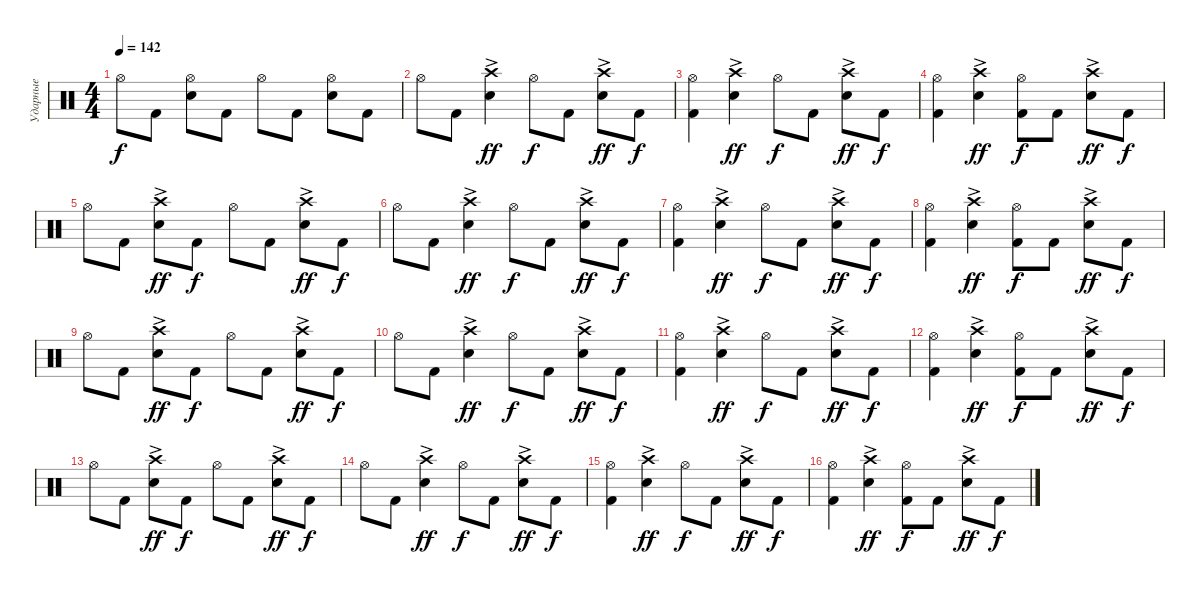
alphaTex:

\track ("Ударные" "Ударные") {instrument percussion}
\staff {score}
\articulation defaults
\ts (4 4)
\tempo 142
\clef neutral
\ks c "Hi-Hat (open)".8{dy f} "Kick (hit) 2".8
("Snare (hit) 2" "Hi-Hat (open)").8 "Kick (hit) 2".8 "Hi-Hat (open)".8 "Kick (hit) 2".8 ("Snare (hit) 2" "Hi-Hat (open)").8 "Kick (hit) 2".8 |
"Hi-Hat (open)".8 "Kick (hit) 2".8 ("Snare (hit) 2" "Crash high (hit)"{ac}).4{dy ff} "Hi-Hat (open)".8{dy f} "Kick (hit) 2".8 ("Snare (hit) 2" "Crash high (hit)"{ac}).8{dy ff} "Kick (hit) 2".8{dy f} |
("Kick (hit) 2" "Hi-Hat (open)").4 ("Snare (hit) 2" "Crash high (hit)"{ac}).4{dy ff} "Hi-Hat (open)".8{dy f} "Kick (hit) 2".8 ("Snare (hit) 2" "Crash high (hit)"{ac}).8{dy ff} "Kick (hit) 2".8{dy f} |
("Kick (hit) 2" "Hi-Hat (open)").4 ("Snare (hit) 2" "Crash high (hit)"{ac}).4{dy ff} ("Kick (hit) 2" "Hi-Hat (open)").8{dy f} "Kick (hit) 2".8 ("Snare (hit) 2" "Crash high (hit)"{ac}).8{dy ff} "Kick (hit) 2".8{dy f} |
"Hi-Hat (open)".8 "Kick (hit) 2".8 ("Snare (hit) 2" "Crash high (hit)"{ac}).8{dy ff} "Kick (hit) 2".8{dy f} "Hi-Hat (open)".8 "Kick (hit) 2".8 ("Snare (hit) 2" "Crash high (hit)"{ac}).8{dy ff} "Kick (hit) 2".8{dy f} |
"Hi-Hat (open)".8 "Kick (hit) 2".8 ("Snare (hit) 2" "Crash high (hit)"{ac}).4{dy ff} "Hi-Hat (open)".8{dy f} "Kick (hit) 2".8 ("Snare (hit) 2" "Crash high (hit)"{ac}).8{dy ff} "Kick (hit) 2".8{dy f} |
("Kick (hit) 2" "Hi-Hat (open)").4 ("Snare (hit) 2" "Crash high (hit)"{ac}).4{dy ff} "Hi-Hat (open)".8{dy f} "Kick (hit) 2".8 ("Snare (hit) 2" "Crash high (hit)"{ac}).8{dy ff} "Kick (hit) 2".8{dy f} |
("Kick (hit) 2" "Hi-Hat (open)").4 ("Snare (hit) 2" "Crash high (hit)"{ac}).4{dy ff} ("Kick (hit) 2" "Hi-Hat (open)").8{dy f} "Kick (hit) 2".8 ("Snare (hit) 2" "Crash high (hit)"{ac}).8{dy ff} "Kick (hit) 2".8{dy f} |
"Hi-Hat (open)".8 "Kick (hit) 2".8 ("Snare (hit) 2" "Crash high (hit)"{ac}).8{dy ff} "Kick (hit) 2".8{dy f} "Hi-Hat (open)".8 "Kick (hit) 2".8 ("Snare (hit) 2" "Crash high (hit)"{ac}).8{dy ff} "Kick (hit) 2".8{dy f} |
"Hi-Hat (open)".8 "Kick (hit) 2".8 ("Snare (hit) 2" "Crash high (hit)"{ac}).4{dy ff} "Hi-Hat (open)".8{dy f} "Kick (hit) 2".8 ("Snare (hit) 2" "Crash high (hit)"{ac}).8{dy ff} "Kick (hit) 2".8{dy f} |
("Kick (hit) 2" "Hi-Hat (open)").4 ("Snare (hit) 2" "Crash high (hit)"{ac}).4{dy ff} "Hi-Hat (open)".8{dy f} "Kick (hit) 2".8 ("Snare (hit) 2" "Crash high (hit)"{ac}).8{dy ff} "Kick (hit) 2".8{dy f} |
("Kick (hit) 2" "Hi-Hat (open)").4 ("Snare (hit) 2" "Crash high (hit)"{ac}).4{dy ff} ("Kick (hit) 2" "Hi-Hat (open)").8{dy f} "Kick (hit) 2".8 ("Snare (hit) 2" "Crash high (hit)"{ac}).8{dy ff} "Kick (hit) 2".8{dy f} |
"Hi-Hat (open)".8 "Kick (hit) 2".8 ("Snare (hit) 2" "Crash high (hit)"{ac}).8{dy ff} "Kick (hit) 2".8{dy f} "Hi-Hat (open)".8 "Kick (hit) 2".8 ("Snare (hit) 2" "Crash high (hit)"{ac}).8{dy ff} "Kick (hit) 2".8{dy f} |
"Hi-Hat (open)".8 "Kick (hit) 2".8 ("Snare (hit) 2" "Crash high (hit)"{ac}).4{dy ff} "Hi-Hat (open)".8{dy f} "Kick (hit) 2".8 ("Snare (hit) 2" "Crash high (hit)"{ac}).8{dy ff} "Kick (hit) 2".8{dy f} |
("Kick (hit) 2" "Hi-Hat (open)").4 ("Snare (hit) 2" "Crash high (hit)"{ac}).4{dy ff} "Hi-Hat (open)".8{dy f} "Kick (hit) 2".8 ("Snare (hit) 2" "Crash high (hit)"{ac}).8{dy ff} "Kick (hit) 2".8{dy f} |
("Kick (hit) 2" "Hi-Hat (open)").4 ("Snare (hit) 2" "Crash high (hit)"{ac}).4{dy ff} ("Kick (hit) 2" "Hi-Hat (open)").8{dy f} "Kick (hit) 2".8 ("Snare (hit) 2" "Crash high (hit)"{ac}).8{dy ff} "Kick (hit) 2".8{dy f}
